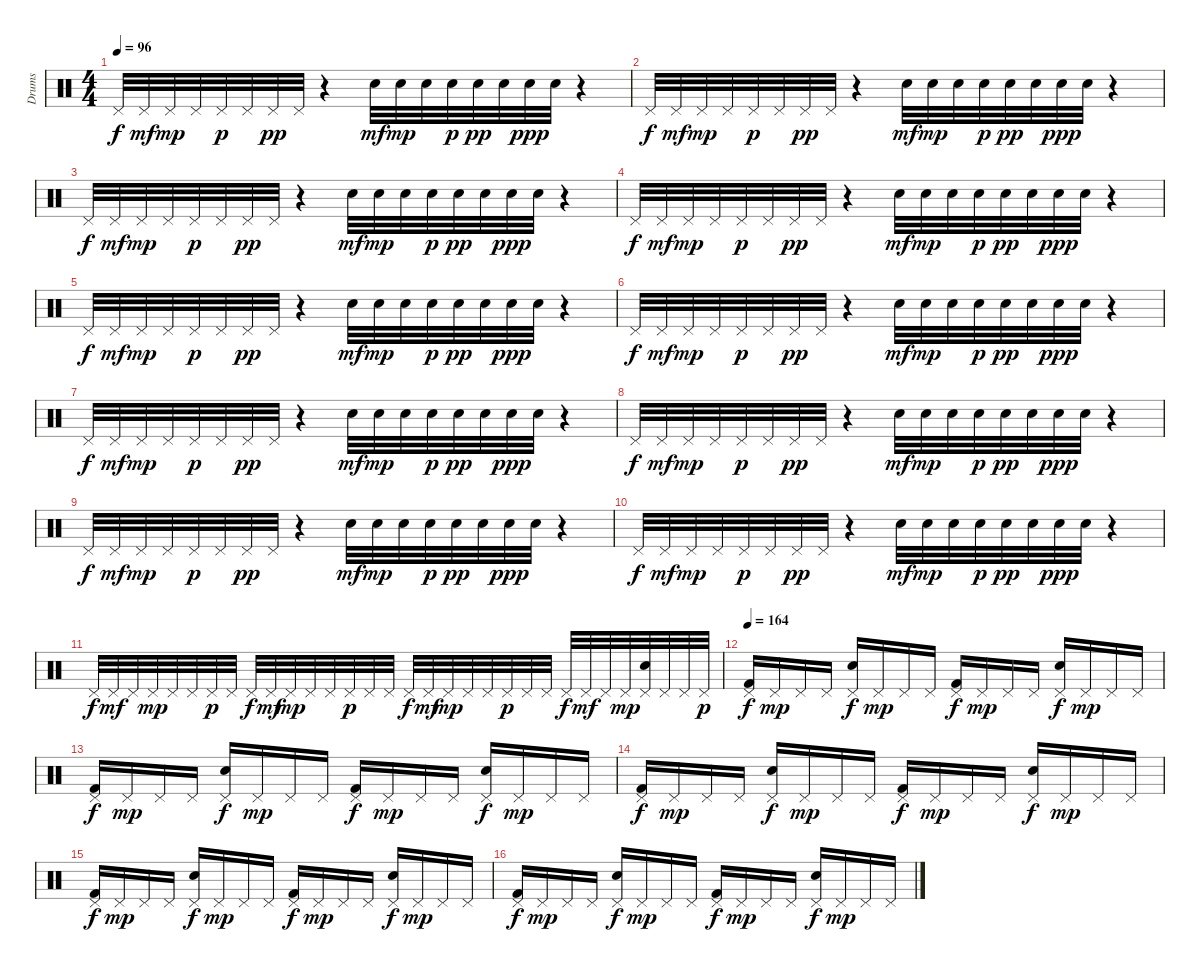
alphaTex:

\track ("Drums" "Drums") {instrument percussion}
\staff {score}
\articulation defaults
\ts (4 4)
\tempo 96
\clef neutral
\ks c "Pedal Hi-Hat (hit)".32{dy f} "Pedal Hi-Hat (hit)".32{dy mf} "Pedal Hi-Hat (hit)".32{dy mp} "Pedal Hi-Hat (hit)".32 "Pedal Hi-Hat (hit)".32{dy p} "Pedal Hi-Hat (hit)".32 "Pedal Hi-Hat (hit)".32{dy pp} "Pedal Hi-Hat (hit)".32
r.4 "Snare (hit) 2".32{dy mf} "Snare (hit) 2".32{dy mp} "Snare (hit) 2".32 "Snare (hit) 2".32{dy p} "Snare (hit) 2".32{dy pp} "Snare (hit) 2".32 "Snare (hit) 2".32{dy ppp} "Snare (hit) 2".32 r.4 |
"Pedal Hi-Hat (hit)".32{dy f} "Pedal Hi-Hat (hit)".32{dy mf} "Pedal Hi-Hat (hit)".32{dy mp} "Pedal Hi-Hat (hit)".32 "Pedal Hi-Hat (hit)".32{dy p} "Pedal Hi-Hat (hit)".32 "Pedal Hi-Hat (hit)".32{dy pp} "Pedal Hi-Hat (hit)".32 r.4 "Snare (hit) 2".32{dy mf} "Snare (hit) 2".32{dy mp} "Snare (hit) 2".32 "Snare (hit) 2".32{dy p} "Snare (hit) 2".32{dy pp} "Snare (hit) 2".32 "Snare (hit) 2".32{dy ppp} "Snare (hit) 2".32 r.4 |
"Pedal Hi-Hat (hit)".32{dy f} "Pedal Hi-Hat (hit)".32{dy mf} "Pedal Hi-Hat (hit)".32{dy mp} "Pedal Hi-Hat (hit)".32 "Pedal Hi-Hat (hit)".32{dy p} "Pedal Hi-Hat (hit)".32 "Pedal Hi-Hat (hit)".32{dy pp} "Pedal Hi-Hat (hit)".32 r.4 "Snare (hit) 2".32{dy mf} "Snare (hit) 2".32{dy mp} "Snare (hit) 2".32 "Snare (hit) 2".32{dy p} "Snare (hit) 2".32{dy pp} "Snare (hit) 2".32 "Snare (hit) 2".32{dy ppp} "Snare (hit) 2".32 r.4 |
"Pedal Hi-Hat (hit)".32{dy f} "Pedal Hi-Hat (hit)".32{dy mf} "Pedal Hi-Hat (hit)".32{dy mp} "Pedal Hi-Hat (hit)".32 "Pedal Hi-Hat (hit)".32{dy p} "Pedal Hi-Hat (hit)".32 "Pedal Hi-Hat (hit)".32{dy pp} "Pedal Hi-Hat (hit)".32 r.4 "Snare (hit) 2".32{dy mf} "Snare (hit) 2".32{dy mp} "Snare (hit) 2".32 "Snare (hit) 2".32{dy p} "Snare (hit) 2".32{dy pp} "Snare (hit) 2".32 "Snare (hit) 2".32{dy ppp} "Snare (hit) 2".32 r.4 |
"Pedal Hi-Hat (hit)".32{dy f} "Pedal Hi-Hat (hit)".32{dy mf} "Pedal Hi-Hat (hit)".32{dy mp} "Pedal Hi-Hat (hit)".32 "Pedal Hi-Hat (hit)".32{dy p} "Pedal Hi-Hat (hit)".32 "Pedal Hi-Hat (hit)".32{dy pp} "Pedal Hi-Hat (hit)".32 r.4 "Snare (hit) 2".32{dy mf} "Snare (hit) 2".32{dy mp} "Snare (hit) 2".32 "Snare (hit) 2".32{dy p} "Snare (hit) 2".32{dy pp} "Snare (hit) 2".32 "Snare (hit) 2".32{dy ppp} "Snare (hit) 2".32 r.4 |
"Pedal Hi-Hat (hit)".32{dy f} "Pedal Hi-Hat (hit)".32{dy mf} "Pedal Hi-Hat (hit)".32{dy mp} "Pedal Hi-Hat (hit)".32 "Pedal Hi-Hat (hit)".32{dy p} "Pedal Hi-Hat (hit)".32 "Pedal Hi-Hat (hit)".32{dy pp} "Pedal Hi-Hat (hit)".32 r.4 "Snare (hit) 2".32{dy mf} "Snare (hit) 2".32{dy mp} "Snare (hit) 2".32 "Snare (hit) 2".32{dy p} "Snare (hit) 2".32{dy pp} "Snare (hit) 2".32 "Snare (hit) 2".32{dy ppp} "Snare (hit) 2".32 r.4 |
"Pedal Hi-Hat (hit)".32{dy f} "Pedal Hi-Hat (hit)".32{dy mf} "Pedal Hi-Hat (hit)".32{dy mp} "Pedal Hi-Hat (hit)".32 "Pedal Hi-Hat (hit)".32{dy p} "Pedal Hi-Hat (hit)".32 "Pedal Hi-Hat (hit)".32{dy pp} "Pedal Hi-Hat (hit)".32 r.4 "Snare (hit) 2".32{dy mf} "Snare (hit) 2".32{dy mp} "Snare (hit) 2".32 "Snare (hit) 2".32{dy p} "Snare (hit) 2".32{dy pp} "Snare (hit) 2".32 "Snare (hit) 2".32{dy ppp} "Snare (hit) 2".32 r.4 |
"Pedal Hi-Hat (hit)".32{dy f} "Pedal Hi-Hat (hit)".32{dy mf} "Pedal Hi-Hat (hit)".32{dy mp} "Pedal Hi-Hat (hit)".32 "Pedal Hi-Hat (hit)".32{dy p} "Pedal Hi-Hat (hit)".32 "Pedal Hi-Hat (hit)".32{dy pp} "Pedal Hi-Hat (hit)".32 r.4 "Snare (hit) 2".32{dy mf} "Snare (hit) 2".32{dy mp} "Snare (hit) 2".32 "Snare (hit) 2".32{dy p} "Snare (hit) 2".32{dy pp} "Snare (hit) 2".32 "Snare (hit) 2".32{dy ppp} "Snare (hit) 2".32 r.4 |
"Pedal Hi-Hat (hit)".32{dy f} "Pedal Hi-Hat (hit)".32{dy mf} "Pedal Hi-Hat (hit)".32{dy mp} "Pedal Hi-Hat (hit)".32 "Pedal Hi-Hat (hit)".32{dy p} "Pedal Hi-Hat (hit)".32 "Pedal Hi-Hat (hit)".32{dy pp} "Pedal Hi-Hat (hit)".32 r.4 "Snare (hit) 2".32{dy mf} "Snare (hit) 2".32{dy mp} "Snare (hit) 2".32 "Snare (hit) 2".32{dy p} "Snare (hit) 2".32{dy pp} "Snare (hit) 2".32 "Snare (hit) 2".32{dy ppp} "Snare (hit) 2".32 r.4 |
"Pedal Hi-Hat (hit)".32{dy f} "Pedal Hi-Hat (hit)".32{dy mf} "Pedal Hi-Hat (hit)".32{dy mp} "Pedal Hi-Hat (hit)".32 "Pedal Hi-Hat (hit)".32{dy p} "Pedal Hi-Hat (hit)".32 "Pedal Hi-Hat (hit)".32{dy pp} "Pedal Hi-Hat (hit)".32 r.4 "Snare (hit) 2".32{dy mf} "Snare (hit) 2".32{dy mp} "Snare (hit) 2".32 "Snare (hit) 2".32{dy p} "Snare (hit) 2".32{dy pp} "Snare (hit) 2".32 "Snare (hit) 2".32{dy ppp} "Snare (hit) 2".32 r.4 |
"Pedal Hi-Hat (hit)".32{dy f} "Pedal Hi-Hat (hit)".32{dy mf} "Pedal Hi-Hat (hit)".32 "Pedal Hi-Hat (hit)".32{dy mp} "Pedal Hi-Hat (hit)".32 "Pedal Hi-Hat (hit)".32 "Pedal Hi-Hat (hit)".32{dy p} "Pedal Hi-Hat (hit)".32 "Pedal Hi-Hat (hit)".32{dy f} "Pedal Hi-Hat (hit)".32{dy mf} "Pedal Hi-Hat (hit)".32{dy mp} "Pedal Hi-Hat (hit)".32 "Pedal Hi-Hat (hit)".32 "Pedal Hi-Hat (hit)".32{dy p} "Pedal Hi-Hat (hit)".32 "Pedal Hi-Hat (hit)".32 "Pedal Hi-Hat (hit)".32{dy f} "Pedal Hi-Hat (hit)".32{dy mf} "Pedal Hi-Hat (hit)".32{dy mp} "Pedal Hi-Hat (hit)".32 "Pedal Hi-Hat (hit)".32 "Pedal Hi-Hat (hit)".32{dy p} "Pedal Hi-Hat (hit)".32 "Pedal Hi-Hat (hit)".32 "Pedal Hi-Hat (hit)".32{dy f} "Pedal Hi-Hat (hit)".32{dy mf} "Pedal Hi-Hat (hit)".32 "Pedal Hi-Hat (hit)".32{dy mp} ("Pedal Hi-Hat (hit)" "Electric Snare (hit)").32 "Pedal Hi-Hat (hit)".32 "Pedal Hi-Hat (hit)".32 "Pedal Hi-Hat (hit)".32{dy p} |
\tempo 164
("Pedal Hi-Hat (hit)" "Kick (hit) 2").16{dy f} "Pedal Hi-Hat (hit)".16{dy mp} "Pedal Hi-Hat (hit)".16 "Pedal Hi-Hat (hit)".16 ("Pedal Hi-Hat (hit)" "Snare (hit) 2").16{dy f} "Pedal Hi-Hat (hit)".16{dy mp} "Pedal Hi-Hat (hit)".16 "Pedal Hi-Hat (hit)".16 ("Pedal Hi-Hat (hit)" "Kick (hit) 2").16{dy f} "Pedal Hi-Hat (hit)".16{dy mp} "Pedal Hi-Hat (hit)".16 "Pedal Hi-Hat (hit)".16 ("Pedal Hi-Hat (hit)" "Snare (hit) 2").16{dy f} "Pedal Hi-Hat (hit)".16{dy mp} "Pedal Hi-Hat (hit)".16 "Pedal Hi-Hat (hit)".16 |
("Pedal Hi-Hat (hit)" "Kick (hit) 2").16{dy f} "Pedal Hi-Hat (hit)".16{dy mp} "Pedal Hi-Hat (hit)".16 "Pedal Hi-Hat (hit)".16 ("Pedal Hi-Hat (hit)" "Snare (hit) 2").16{dy f} "Pedal Hi-Hat (hit)".16{dy mp} "Pedal Hi-Hat (hit)".16 "Pedal Hi-Hat (hit)".16 ("Pedal Hi-Hat (hit)" "Kick (hit) 2").16{dy f} "Pedal Hi-Hat (hit)".16{dy mp} "Pedal Hi-Hat (hit)".16 "Pedal Hi-Hat (hit)".16 ("Pedal Hi-Hat (hit)" "Snare (hit) 2").16{dy f} "Pedal Hi-Hat (hit)".16{dy mp} "Pedal Hi-Hat (hit)".16 "Pedal Hi-Hat (hit)".16 |
("Pedal Hi-Hat (hit)" "Kick (hit) 2").16{dy f} "Pedal Hi-Hat (hit)".16{dy mp} "Pedal Hi-Hat (hit)".16 "Pedal Hi-Hat (hit)".16 ("Pedal Hi-Hat (hit)" "Snare (hit) 2").16{dy f} "Pedal Hi-Hat (hit)".16{dy mp} "Pedal Hi-Hat (hit)".16 "Pedal Hi-Hat (hit)".16 ("Pedal Hi-Hat (hit)" "Kick (hit) 2").16{dy f} "Pedal Hi-Hat (hit)".16{dy mp} "Pedal Hi-Hat (hit)".16 "Pedal Hi-Hat (hit)".16 ("Pedal Hi-Hat (hit)" "Snare (hit) 2").16{dy f} "Pedal Hi-Hat (hit)".16{dy mp} "Pedal Hi-Hat (hit)".16 "Pedal Hi-Hat (hit)".16 |
("Pedal Hi-Hat (hit)" "Kick (hit) 2").16{dy f} "Pedal Hi-Hat (hit)".16{dy mp} "Pedal Hi-Hat (hit)".16 "Pedal Hi-Hat (hit)".16 ("Pedal Hi-Hat (hit)" "Snare (hit) 2").16{dy f} "Pedal Hi-Hat (hit)".16{dy mp} "Pedal Hi-Hat (hit)".16 "Pedal Hi-Hat (hit)".16 ("Pedal Hi-Hat (hit)" "Kick (hit) 2").16{dy f} "Pedal Hi-Hat (hit)".16{dy mp} "Pedal Hi-Hat (hit)".16 "Pedal Hi-Hat (hit)".16 ("Pedal Hi-Hat (hit)" "Snare (hit) 2").16{dy f} "Pedal Hi-Hat (hit)".16{dy mp} "Pedal Hi-Hat (hit)".16 "Pedal Hi-Hat (hit)".16 |
("Pedal Hi-Hat (hit)" "Kick (hit) 2").16{dy f} "Pedal Hi-Hat (hit)".16{dy mp} "Pedal Hi-Hat (hit)".16 "Pedal Hi-Hat (hit)".16 ("Pedal Hi-Hat (hit)" "Snare (hit) 2").16{dy f} "Pedal Hi-Hat (hit)".16{dy mp} "Pedal Hi-Hat (hit)".16 "Pedal Hi-Hat (hit)".16 ("Pedal Hi-Hat (hit)" "Kick (hit) 2").16{dy f} "Pedal Hi-Hat (hit)".16{dy mp} "Pedal Hi-Hat (hit)".16 "Pedal Hi-Hat (hit)".16 ("Pedal Hi-Hat (hit)" "Snare (hit) 2").16{dy f} "Pedal Hi-Hat (hit)".16{dy mp} "Pedal Hi-Hat (hit)".16 "Pedal Hi-Hat (hit)".16
